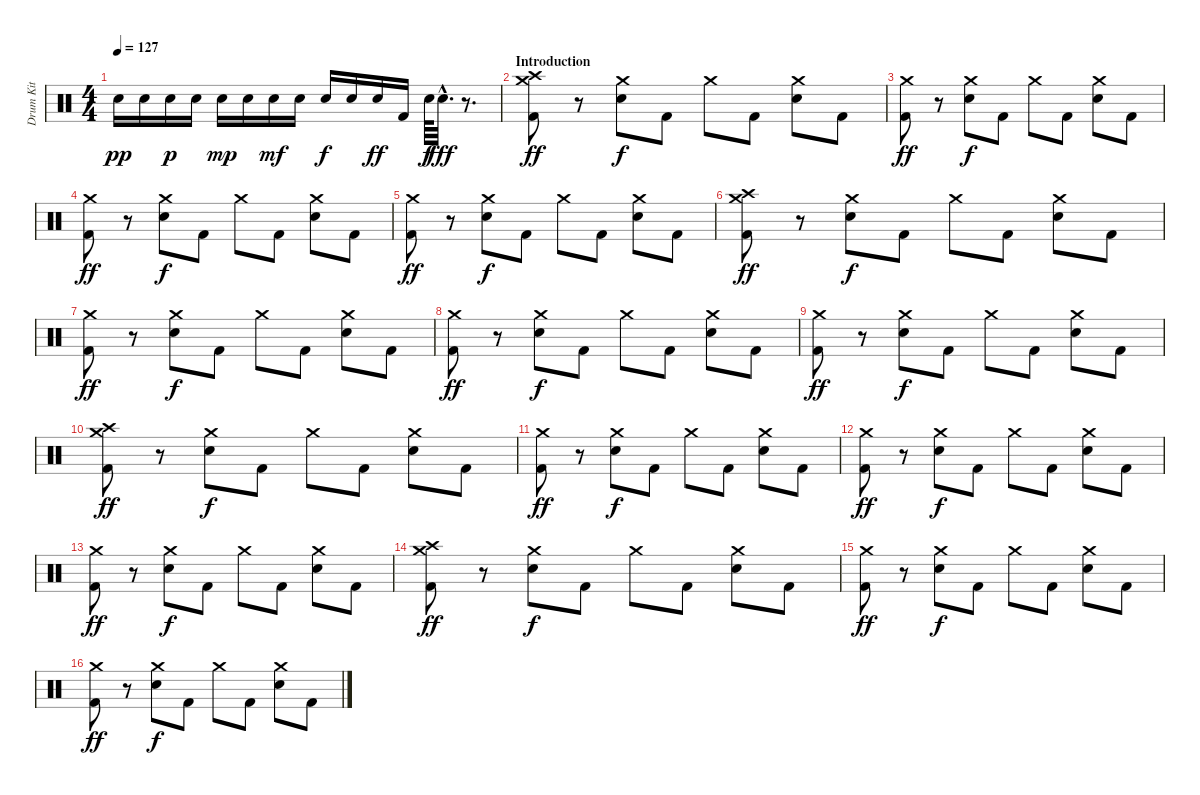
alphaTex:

\track ("Drum Kit" "Drum Kit") {instrument percussion}
\staff {score}
\articulation defaults
\ts (4 4)
\tempo 127
\clef neutral
\ks c "Electric Snare (hit)".16{dy pp} "Electric Snare (hit)".16 "Electric Snare (hit)".16{dy p} "Electric Snare (hit)".16 "Electric Snare (hit)".16{dy mp} "Electric Snare (hit)".16 "Electric Snare (hit)".16{dy mf} "Electric Snare (hit)".16 "Electric Snare (hit)".16{dy f} "Electric Snare (hit)".16 "Electric Snare (hit)".16{dy ff} "Kick (hit) 2".16 "Electric Snare (hit)".64{dy f} "Electric Snare (hit)"{hac}.32{d dy fff}
r.8{d} |
\section ("" "Introduction")
("Crash high (hit)" "Crash medium (hit)" "Kick (hit) 2").8{dy ff} r.8 ("Crash medium (hit)" "Electric Snare (hit)").8{dy f} "Kick (hit) 2".8 "Crash medium (hit)".8 "Kick (hit) 2".8 ("Crash medium (hit)" "Electric Snare (hit)").8 "Kick (hit) 2".8 |
("Crash medium (hit)" "Kick (hit) 2").8{dy ff} r.8 ("Crash medium (hit)" "Electric Snare (hit)").8{dy f} "Kick (hit) 2".8 "Crash medium (hit)".8 "Kick (hit) 2".8 ("Crash medium (hit)" "Electric Snare (hit)").8 "Kick (hit) 2".8 |
("Crash medium (hit)" "Kick (hit) 2").8{dy ff} r.8 ("Crash medium (hit)" "Electric Snare (hit)").8{dy f} "Kick (hit) 2".8 "Crash medium (hit)".8 "Kick (hit) 2".8 ("Crash medium (hit)" "Electric Snare (hit)").8 "Kick (hit) 2".8 |
("Crash medium (hit)" "Kick (hit) 2").8{dy ff} r.8 ("Crash medium (hit)" "Electric Snare (hit)").8{dy f} "Kick (hit) 2".8 "Crash medium (hit)".8 "Kick (hit) 2".8 ("Crash medium (hit)" "Electric Snare (hit)").8 "Kick (hit) 2".8 |
("Crash high (hit)" "Crash medium (hit)" "Kick (hit) 2").8{dy ff} r.8 ("Crash medium (hit)" "Electric Snare (hit)").8{dy f} "Kick (hit) 2".8 "Crash medium (hit)".8 "Kick (hit) 2".8 ("Crash medium (hit)" "Electric Snare (hit)").8 "Kick (hit) 2".8 |
("Crash medium (hit)" "Kick (hit) 2").8{dy ff} r.8 ("Crash medium (hit)" "Electric Snare (hit)").8{dy f} "Kick (hit) 2".8 "Crash medium (hit)".8 "Kick (hit) 2".8 ("Crash medium (hit)" "Electric Snare (hit)").8 "Kick (hit) 2".8 |
("Crash medium (hit)" "Kick (hit) 2").8{dy ff} r.8 ("Crash medium (hit)" "Electric Snare (hit)").8{dy f} "Kick (hit) 2".8 "Crash medium (hit)".8 "Kick (hit) 2".8 ("Crash medium (hit)" "Electric Snare (hit)").8 "Kick (hit) 2".8 |
("Crash medium (hit)" "Kick (hit) 2").8{dy ff} r.8 ("Crash medium (hit)" "Electric Snare (hit)").8{dy f} "Kick (hit) 2".8 "Crash medium (hit)".8 "Kick (hit) 2".8 ("Crash medium (hit)" "Electric Snare (hit)").8 "Kick (hit) 2".8 |
("Crash high (hit)" "Crash medium (hit)" "Kick (hit) 2").8{dy ff} r.8 ("Crash medium (hit)" "Electric Snare (hit)").8{dy f} "Kick (hit) 2".8 "Crash medium (hit)".8 "Kick (hit) 2".8 ("Crash medium (hit)" "Electric Snare (hit)").8 "Kick (hit) 2".8 |
("Crash medium (hit)" "Kick (hit) 2").8{dy ff} r.8 ("Crash medium (hit)" "Electric Snare (hit)").8{dy f} "Kick (hit) 2".8 "Crash medium (hit)".8 "Kick (hit) 2".8 ("Crash medium (hit)" "Electric Snare (hit)").8 "Kick (hit) 2".8 |
("Crash medium (hit)" "Kick (hit) 2").8{dy ff} r.8 ("Crash medium (hit)" "Electric Snare (hit)").8{dy f} "Kick (hit) 2".8 "Crash medium (hit)".8 "Kick (hit) 2".8 ("Crash medium (hit)" "Electric Snare (hit)").8 "Kick (hit) 2".8 |
("Crash medium (hit)" "Kick (hit) 2").8{dy ff} r.8 ("Crash medium (hit)" "Electric Snare (hit)").8{dy f} "Kick (hit) 2".8 "Crash medium (hit)".8 "Kick (hit) 2".8 ("Crash medium (hit)" "Electric Snare (hit)").8 "Kick (hit) 2".8 |
("Crash high (hit)" "Crash medium (hit)" "Kick (hit) 2").8{dy ff} r.8 ("Crash medium (hit)" "Electric Snare (hit)").8{dy f} "Kick (hit) 2".8 "Crash medium (hit)".8 "Kick (hit) 2".8 ("Crash medium (hit)" "Electric Snare (hit)").8 "Kick (hit) 2".8 |
("Crash medium (hit)" "Kick (hit) 2").8{dy ff} r.8 ("Crash medium (hit)" "Electric Snare (hit)").8{dy f} "Kick (hit) 2".8 "Crash medium (hit)".8 "Kick (hit) 2".8 ("Crash medium (hit)" "Electric Snare (hit)").8 "Kick (hit) 2".8 |
("Crash medium (hit)" "Kick (hit) 2").8{dy ff} r.8 ("Crash medium (hit)" "Electric Snare (hit)").8{dy f} "Kick (hit) 2".8 "Crash medium (hit)".8 "Kick (hit) 2".8 ("Crash medium (hit)" "Electric Snare (hit)").8 "Kick (hit) 2".8
